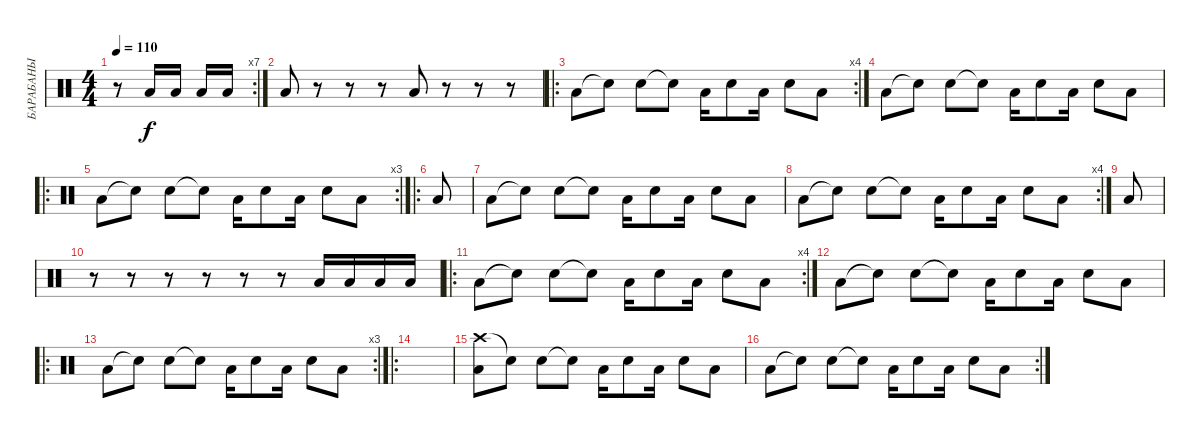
\track ("БАРАБАНЫ" "БАРАБАНЫ") {instrument percussion}
\staff {score}
\articulation defaults
\rc 7
\ts (4 4)
\tempo 110
\clef neutral
\ks c
r.8{dy f} "Low Floor Tom (hit)".16 "Low Floor Tom (hit)".16 "Low Floor Tom (hit)".16 "Low Floor Tom (hit)".16 |
"Low Floor Tom (hit)".8 r.8 r.8 r.8 "Low Floor Tom (hit)".8 r.8 r.8 r.8 |
\ro
\rc 4 "Low Floor Tom (hit)".8 "Snare (hit)"{t}.8 "Electric Snare (hit)".8 "Snare (hit)"{t}.8 "Low Floor Tom (hit)".16 "Electric Snare (hit)".8 "Low Floor Tom (hit)".16 "Electric Snare (hit)".8 "Low Floor Tom (hit)".8
|
"Low Floor Tom (hit)".8 "Snare (hit)"{t}.8 "Electric Snare (hit)".8 "Snare (hit)"{t}.8 "Low Floor Tom (hit)".16 "Electric Snare (hit)".8 "Low Floor Tom (hit)".16 "Electric Snare (hit)".8 "Low Floor Tom (hit)".8 |
\ro
\rc 3 "Low Floor Tom (hit)".8 "Snare (hit)"{t}.8 "Electric Snare (hit)".8 "Snare (hit)"{t}.8 "Low Floor Tom (hit)".16 "Electric Snare (hit)".8 "Low Floor Tom (hit)".16 "Electric Snare (hit)".8 "Low Floor Tom (hit)".8
|
\ro "Low Floor Tom (hit)".8
|
"Low Floor Tom (hit)".8 "Snare (hit)"{t}.8 "Electric Snare (hit)".8 "Snare (hit)"{t}.8 "Low Floor Tom (hit)".16 "Electric Snare (hit)".8 "Low Floor Tom (hit)".16 "Electric Snare (hit)".8 "Low Floor Tom (hit)".8 |
\rc 4 "Low Floor Tom (hit)".8 "Snare (hit)"{t}.8 "Electric Snare (hit)".8 "Snare (hit)"{t}.8 "Low Floor Tom (hit)".16 "Electric Snare (hit)".8 "Low Floor Tom (hit)".16 "Electric Snare (hit)".8 "Low Floor Tom (hit)".8
|
"Low Floor Tom (hit)".8 |
r.8 r.8 r.8 r.8 r.8 r.8 "Low Floor Tom (hit)".16 "Low Floor Tom (hit)".16 "Low Floor Tom (hit)".16 "Low Floor Tom (hit)".16 |
\ro
\rc 4 "Low Floor Tom (hit)".8 "Snare (hit)"{t}.8 "Electric Snare (hit)".8 "Snare (hit)"{t}.8 "Low Floor Tom (hit)".16 "Electric Snare (hit)".8 "Low Floor Tom (hit)".16 "Electric Snare (hit)".8 "Low Floor Tom (hit)".8
|
"Low Floor Tom (hit)".8 "Snare (hit)"{t}.8 "Electric Snare (hit)".8 "Snare (hit)"{t}.8 "Low Floor Tom (hit)".16 "Electric Snare (hit)".8 "Low Floor Tom (hit)".16 "Electric Snare (hit)".8 "Low Floor Tom (hit)".8 |
\ro
\rc 3 "Low Floor Tom (hit)".8 "Snare (hit)"{t}.8 "Electric Snare (hit)".8 "Snare (hit)"{t}.8 "Low Floor Tom (hit)".16 "Electric Snare (hit)".8 "Low Floor Tom (hit)".16 "Electric Snare (hit)".8 "Low Floor Tom (hit)".8
|
\ro
|
("Crash high (hit)" "Low Floor Tom (hit)").8 "Snare (hit)"{t}.8 "Electric Snare (hit)".8 "Snare (hit)"{t}.8 "Low Floor Tom (hit)".16 "Electric Snare (hit)".8 "Low Floor Tom (hit)".16 "Electric Snare (hit)".8 "Low Floor Tom (hit)".8 |
\rc 2 "Low Floor Tom (hit)".8 "Snare (hit)"{t}.8 "Electric Snare (hit)".8 "Snare (hit)"{t}.8 "Low Floor Tom (hit)".16 "Electric Snare (hit)".8 "Low Floor Tom (hit)".16 "Electric Snare (hit)".8 "Low Floor Tom (hit)".8
